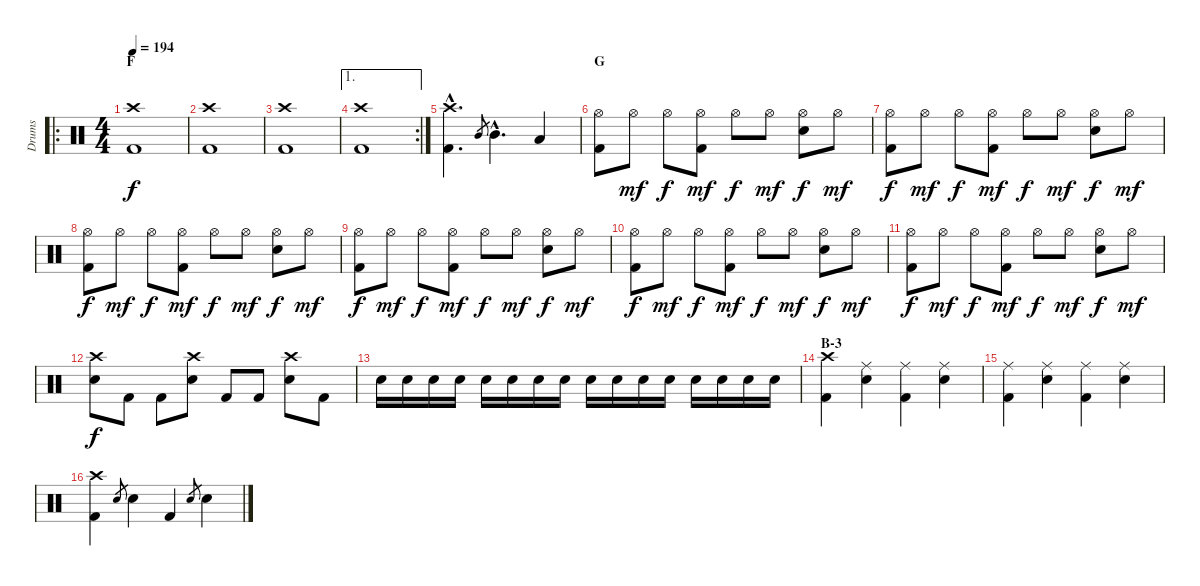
\track ("Drums" "Drums") {instrument percussion}
\staff {score}
\articulation defaults
\ro
\ts (4 4)
\section ("" "F")
\tempo 194
\clef neutral
\ks c
("Crash high (hit)" "Kick (hit) 2").1{dy f} |
("Crash high (hit)" "Kick (hit) 2").1 |
("Crash high (hit)" "Kick (hit) 2").1 |
\ae 1
\rc 2
("Crash high (hit)" "Kick (hit) 2").1 |
("Crash high (hit)"{hac} "Kick (hit) 2"{hac}).4{d} "Mid Tom (hit)".8{gr} "Mid Tom (hit)"{hac}.4{d} "Low Tom (hit)".4 |
\section ("" "G")
("Hi-Hat (open)" "Kick (hit) 2").8 "Hi-Hat (open)".8{dy mf} "Hi-Hat (open)".8{dy f} ("Hi-Hat (open)" "Kick (hit) 2").8{dy mf} "Hi-Hat (open)".8{dy f} "Hi-Hat (open)".8{dy mf} ("Hi-Hat (open)" "Electric Snare (hit)").8{dy f} "Hi-Hat (open)".8{dy mf} |
("Hi-Hat (open)" "Kick (hit) 2").8{dy f} "Hi-Hat (open)".8{dy mf} "Hi-Hat (open)".8{dy f} ("Hi-Hat (open)" "Kick (hit) 2").8{dy mf} "Hi-Hat (open)".8{dy f} "Hi-Hat (open)".8{dy mf} ("Hi-Hat (open)" "Electric Snare (hit)").8{dy f} "Hi-Hat (open)".8{dy mf} |
("Hi-Hat (open)" "Kick (hit) 2").8{dy f} "Hi-Hat (open)".8{dy mf} "Hi-Hat (open)".8{dy f} ("Hi-Hat (open)" "Kick (hit) 2").8{dy mf} "Hi-Hat (open)".8{dy f} "Hi-Hat (open)".8{dy mf} ("Hi-Hat (open)" "Electric Snare (hit)").8{dy f} "Hi-Hat (open)".8{dy mf} |
("Hi-Hat (open)" "Kick (hit) 2").8{dy f} "Hi-Hat (open)".8{dy mf} "Hi-Hat (open)".8{dy f} ("Hi-Hat (open)" "Kick (hit) 2").8{dy mf} "Hi-Hat (open)".8{dy f} "Hi-Hat (open)".8{dy mf} ("Hi-Hat (open)" "Electric Snare (hit)").8{dy f} "Hi-Hat (open)".8{dy mf} |
("Hi-Hat (open)" "Kick (hit) 2").8{dy f} "Hi-Hat (open)".8{dy mf} "Hi-Hat (open)".8{dy f} ("Hi-Hat (open)" "Kick (hit) 2").8{dy mf} "Hi-Hat (open)".8{dy f} "Hi-Hat (open)".8{dy mf} ("Hi-Hat (open)" "Electric Snare (hit)").8{dy f} "Hi-Hat (open)".8{dy mf} |
("Hi-Hat (open)" "Kick (hit) 2").8{dy f} "Hi-Hat (open)".8{dy mf} "Hi-Hat (open)".8{dy f} ("Hi-Hat (open)" "Kick (hit) 2").8{dy mf} "Hi-Hat (open)".8{dy f} "Hi-Hat (open)".8{dy mf} ("Hi-Hat (open)" "Electric Snare (hit)").8{dy f} "Hi-Hat (open)".8{dy mf} |
("Crash high (hit)" "Electric Snare (hit)").8{dy f} "Kick (hit) 2".8 "Kick (hit) 2".8 ("Crash high (hit)" "Electric Snare (hit)").8 "Kick (hit) 2".8 "Kick (hit) 2".8 ("Crash high (hit)" "Electric Snare (hit)").8 "Kick (hit) 2".8 |
"Electric Snare (hit)".16 "Electric Snare (hit)".16 "Electric Snare (hit)".16 "Electric Snare (hit)".16 "Electric Snare (hit)".16 "Electric Snare (hit)".16 "Electric Snare (hit)".16 "Electric Snare (hit)".16 "Electric Snare (hit)".16 "Electric Snare (hit)".16 "Electric Snare (hit)".16 "Electric Snare (hit)".16 "Electric Snare (hit)".16 "Electric Snare (hit)".16 "Electric Snare (hit)".16 "Electric Snare (hit)".16 |
\section ("" "B-3")
("Crash high (hit)" "Kick (hit) 2").4 ("Ride (middle)" "Electric Snare (hit)").4 ("Ride (middle)" "Kick (hit) 2").4 ("Ride (middle)" "Electric Snare (hit)").4 |
("Ride (middle)" "Kick (hit) 2").4 ("Ride (middle)" "Electric Snare (hit)").4 ("Ride (middle)" "Kick (hit) 2").4 ("Ride (middle)" "Electric Snare (hit)").4 |
("Crash high (hit)" "Kick (hit) 2").4 "Electric Snare (hit)".8{gr} "Electric Snare (hit)".4 "Kick (hit) 2".4 "Electric Snare (hit)".8{gr} "Electric Snare (hit)".4
